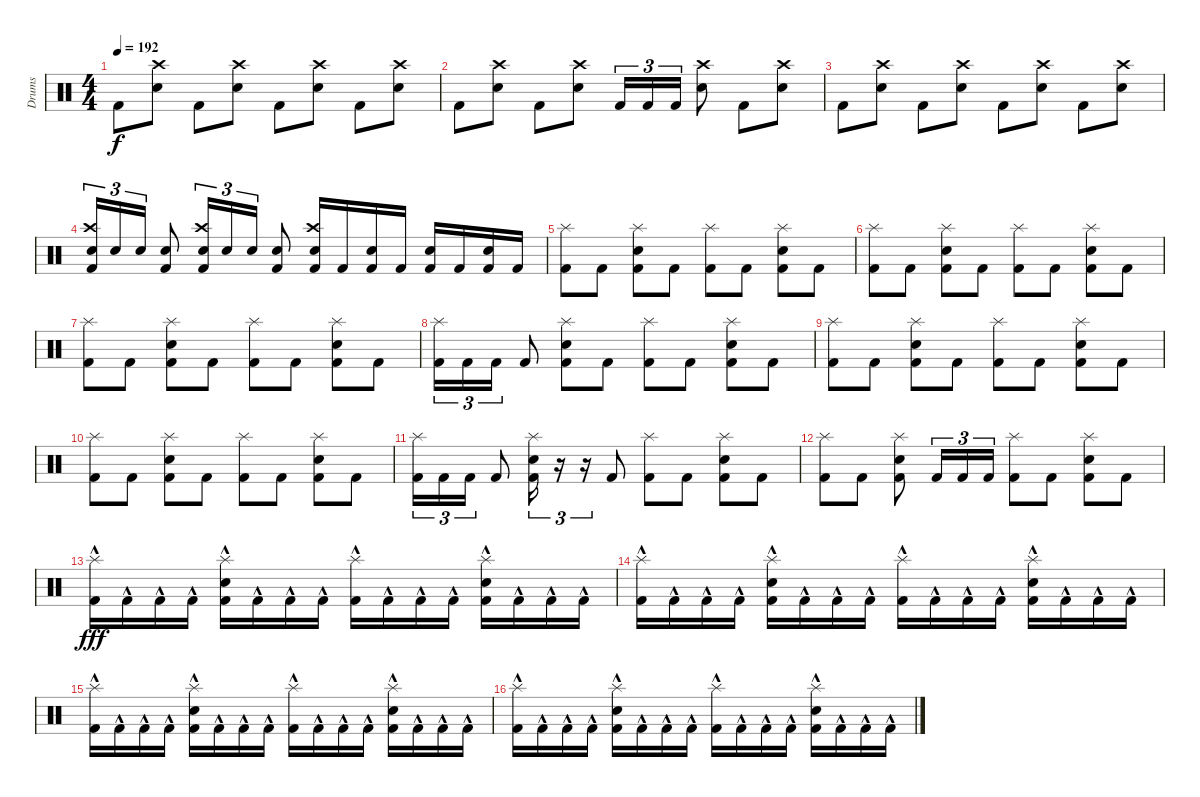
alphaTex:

\track ("Drums" "Drums") {instrument percussion}
\staff {score}
\articulation defaults
\ts (4 4)
\tempo 192
\clef neutral
\ks c "Kick (hit) 2".8{dy f}
("Crash high (hit)" "Electric Snare (hit)").8 "Kick (hit) 2".8 ("Crash high (hit)" "Electric Snare (hit)").8 "Kick (hit) 2".8 ("Crash high (hit)" "Electric Snare (hit)").8 "Kick (hit) 2".8 ("Crash high (hit)" "Electric Snare (hit)").8 |
"Kick (hit) 2".8 ("Crash high (hit)" "Electric Snare (hit)").8 "Kick (hit) 2".8 ("Crash high (hit)" "Electric Snare (hit)").8 "Kick (hit) 2".16{tu (3 2)} "Kick (hit) 2".16{tu (3 2)} "Kick (hit) 2".16{tu (3 2)} ("Crash high (hit)" "Electric Snare (hit)").8 "Kick (hit) 2".8 ("Crash high (hit)" "Electric Snare (hit)").8 |
"Kick (hit) 2".8 ("Crash high (hit)" "Electric Snare (hit)").8 "Kick (hit) 2".8 ("Crash high (hit)" "Electric Snare (hit)").8 "Kick (hit) 2".8 ("Crash high (hit)" "Electric Snare (hit)").8 "Kick (hit) 2".8 ("Crash high (hit)" "Electric Snare (hit)").8 |
("Crash high (hit)" "Kick (hit) 2" "Electric Snare (hit)").16{tu (3 2)} "Electric Snare (hit)".16{tu (3 2)} "Electric Snare (hit)".16{tu (3 2)} ("Kick (hit) 2" "Electric Snare (hit)").8 ("Crash high (hit)" "Kick (hit) 2" "Electric Snare (hit)").16{tu (3 2)} "Electric Snare (hit)".16{tu (3 2)} "Electric Snare (hit)".16{tu (3 2)} ("Kick (hit) 2" "Electric Snare (hit)").8 ("Crash high (hit)" "Kick (hit) 2" "Electric Snare (hit)").16 "Kick (hit) 2".16 ("Kick (hit) 2" "Electric Snare (hit)").16 "Kick (hit) 2".16 ("Kick (hit) 2" "Electric Snare (hit)").16 "Kick (hit) 2".16 ("Kick (hit) 2" "Electric Snare (hit)").16 "Kick (hit) 2".16 |
("Splash (hit)" "Kick (hit) 2").8 "Kick (hit) 2".8 ("Splash (hit)" "Kick (hit) 2" "Electric Snare (hit)").8 "Kick (hit) 2".8 ("Splash (hit)" "Kick (hit) 2").8 "Kick (hit) 2".8 ("Splash (hit)" "Kick (hit) 2" "Electric Snare (hit)").8 "Kick (hit) 2".8 |
("Splash (hit)" "Kick (hit) 2").8 "Kick (hit) 2".8 ("Splash (hit)" "Kick (hit) 2" "Electric Snare (hit)").8 "Kick (hit) 2".8 ("Splash (hit)" "Kick (hit) 2").8 "Kick (hit) 2".8 ("Splash (hit)" "Kick (hit) 2" "Electric Snare (hit)").8 "Kick (hit) 2".8 |
("Splash (hit)" "Kick (hit) 2").8 "Kick (hit) 2".8 ("Splash (hit)" "Kick (hit) 2" "Electric Snare (hit)").8 "Kick (hit) 2".8 ("Splash (hit)" "Kick (hit) 2").8 "Kick (hit) 2".8 ("Splash (hit)" "Kick (hit) 2" "Electric Snare (hit)").8 "Kick (hit) 2".8 |
("Splash (hit)" "Kick (hit) 2").16{tu (3 2)} "Kick (hit) 2".16{tu (3 2)} "Kick (hit) 2".16{tu (3 2)} "Kick (hit) 2".8 ("Splash (hit)" "Kick (hit) 2" "Electric Snare (hit)").8 "Kick (hit) 2".8 ("Splash (hit)" "Kick (hit) 2").8 "Kick (hit) 2".8 ("Splash (hit)" "Kick (hit) 2" "Electric Snare (hit)").8 "Kick (hit) 2".8 |
("Splash (hit)" "Kick (hit) 2").8 "Kick (hit) 2".8 ("Splash (hit)" "Kick (hit) 2" "Electric Snare (hit)").8 "Kick (hit) 2".8 ("Splash (hit)" "Kick (hit) 2").8 "Kick (hit) 2".8 ("Splash (hit)" "Kick (hit) 2" "Electric Snare (hit)").8 "Kick (hit) 2".8 |
("Splash (hit)" "Kick (hit) 2").8 "Kick (hit) 2".8 ("Splash (hit)" "Kick (hit) 2" "Electric Snare (hit)").8 "Kick (hit) 2".8 ("Splash (hit)" "Kick (hit) 2").8 "Kick (hit) 2".8 ("Splash (hit)" "Kick (hit) 2" "Electric Snare (hit)").8 "Kick (hit) 2".8 |
("Splash (hit)" "Kick (hit) 2").16{tu (3 2)} "Kick (hit) 2".16{tu (3 2)} "Kick (hit) 2".16{tu (3 2)} "Kick (hit) 2".8 ("Splash (hit)" "Kick (hit) 2" "Electric Snare (hit)").16{tu (3 2)} r.16{tu (3 2)} r.16{tu (3 2)} "Kick (hit) 2".8 ("Splash (hit)" "Kick (hit) 2").8 "Kick (hit) 2".8 ("Splash (hit)" "Kick (hit) 2" "Electric Snare (hit)").8 "Kick (hit) 2".8 |
("Splash (hit)" "Kick (hit) 2").8 "Kick (hit) 2".8 ("Splash (hit)" "Kick (hit) 2" "Electric Snare (hit)").8 "Kick (hit) 2".16{tu (3 2)} "Kick (hit) 2".16{tu (3 2)} "Kick (hit) 2".16{tu (3 2)} ("Splash (hit)" "Kick (hit) 2").8 "Kick (hit) 2".8 ("Splash (hit)" "Kick (hit) 2" "Electric Snare (hit)").8 "Kick (hit) 2".8 |
("Splash (hit)" "Kick (hit) 2"{hac}).16{dy fff} "Kick (hit) 2"{hac}.16 "Kick (hit) 2"{hac}.16 "Kick (hit) 2"{hac}.16 ("Splash (hit)" "Kick (hit) 2"{hac} "Electric Snare (hit)").16 "Kick (hit) 2"{hac}.16 "Kick (hit) 2"{hac}.16 "Kick (hit) 2"{hac}.16 ("Splash (hit)" "Kick (hit) 2"{hac}).16 "Kick (hit) 2"{hac}.16 "Kick (hit) 2"{hac}.16 "Kick (hit) 2"{hac}.16 ("Splash (hit)" "Kick (hit) 2"{hac} "Electric Snare (hit)").16 "Kick (hit) 2"{hac}.16 "Kick (hit) 2"{hac}.16 "Kick (hit) 2"{hac}.16 |
("Splash (hit)" "Kick (hit) 2"{hac}).16 "Kick (hit) 2"{hac}.16 "Kick (hit) 2"{hac}.16 "Kick (hit) 2"{hac}.16 ("Splash (hit)" "Kick (hit) 2"{hac} "Electric Snare (hit)").16 "Kick (hit) 2"{hac}.16 "Kick (hit) 2"{hac}.16 "Kick (hit) 2"{hac}.16 ("Splash (hit)" "Kick (hit) 2"{hac}).16 "Kick (hit) 2"{hac}.16 "Kick (hit) 2"{hac}.16 "Kick (hit) 2"{hac}.16 ("Splash (hit)" "Kick (hit) 2"{hac} "Electric Snare (hit)").16 "Kick (hit) 2"{hac}.16 "Kick (hit) 2"{hac}.16 "Kick (hit) 2"{hac}.16 |
("Splash (hit)" "Kick (hit) 2"{hac}).16 "Kick (hit) 2"{hac}.16 "Kick (hit) 2"{hac}.16 "Kick (hit) 2"{hac}.16 ("Splash (hit)" "Kick (hit) 2"{hac} "Electric Snare (hit)").16 "Kick (hit) 2"{hac}.16 "Kick (hit) 2"{hac}.16 "Kick (hit) 2"{hac}.16 ("Splash (hit)" "Kick (hit) 2"{hac}).16 "Kick (hit) 2"{hac}.16 "Kick (hit) 2"{hac}.16 "Kick (hit) 2"{hac}.16 ("Splash (hit)" "Kick (hit) 2"{hac} "Electric Snare (hit)").16 "Kick (hit) 2"{hac}.16 "Kick (hit) 2"{hac}.16 "Kick (hit) 2"{hac}.16 |
("Splash (hit)" "Kick (hit) 2"{hac}).16 "Kick (hit) 2"{hac}.16 "Kick (hit) 2"{hac}.16 "Kick (hit) 2"{hac}.16 ("Splash (hit)" "Kick (hit) 2"{hac} "Electric Snare (hit)").16 "Kick (hit) 2"{hac}.16 "Kick (hit) 2"{hac}.16 "Kick (hit) 2"{hac}.16 ("Splash (hit)" "Kick (hit) 2"{hac}).16 "Kick (hit) 2"{hac}.16 "Kick (hit) 2"{hac}.16 "Kick (hit) 2"{hac}.16 ("Splash (hit)" "Kick (hit) 2"{hac} "Electric Snare (hit)").16 "Kick (hit) 2"{hac}.16 "Kick (hit) 2"{hac}.16 "Kick (hit) 2"{hac}.16
